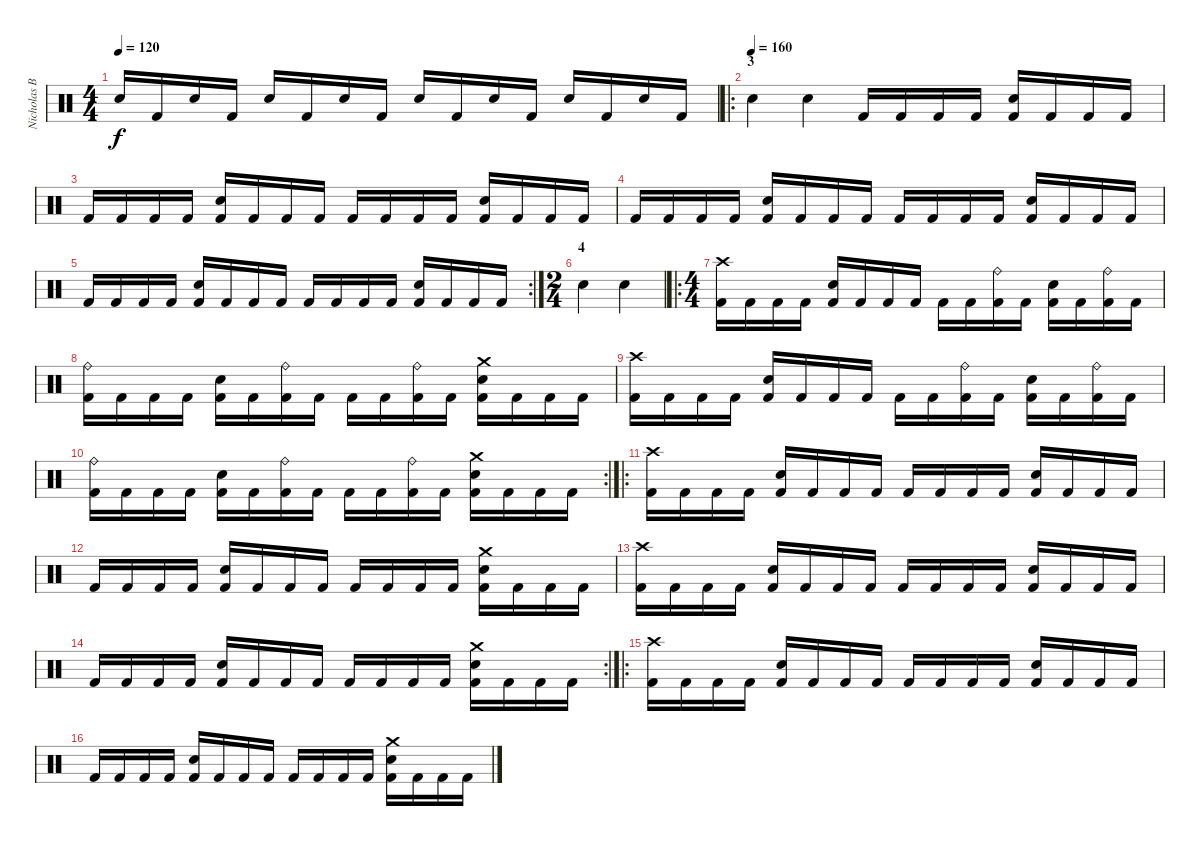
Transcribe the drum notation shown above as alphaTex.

\track ("Nicholas Barker" "Nicholas B") {instrument percussion}
\staff {score}
\articulation defaults
\ts (4 4)
\tempo 120
\clef neutral
\ks c "Snare (hit) 2".16{dy f} "Kick (hit) 2".16 "Snare (hit) 2".16 "Kick (hit) 2".16 "Snare (hit) 2".16 "Kick (hit) 2".16 "Snare (hit) 2".16 "Kick (hit) 2".16 "Snare (hit) 2".16 "Kick (hit) 2".16 "Snare (hit) 2".16 "Kick (hit) 2".16 "Snare (hit) 2".16 "Kick (hit) 2".16 "Snare (hit) 2".16 "Kick (hit) 2".16
|
\ro
\section ("" "3")
\tempo (160)
"Snare (hit) 2".4 "Snare (hit) 2".4 "Kick (hit) 2".16 "Kick (hit) 2".16 "Kick (hit) 2".16 "Kick (hit) 2".16 ("Kick (hit) 2" "Snare (hit) 2").16 "Kick (hit) 2".16 "Kick (hit) 2".16 "Kick (hit) 2".16 |
"Kick (hit) 2".16 "Kick (hit) 2".16 "Kick (hit) 2".16 "Kick (hit) 2".16 ("Kick (hit) 2" "Snare (hit) 2").16 "Kick (hit) 2".16 "Kick (hit) 2".16 "Kick (hit) 2".16 "Kick (hit) 2".16 "Kick (hit) 2".16 "Kick (hit) 2".16 "Kick (hit) 2".16 ("Kick (hit) 2" "Snare (hit) 2").16 "Kick (hit) 2".16 "Kick (hit) 2".16 "Kick (hit) 2".16 |
"Kick (hit) 2".16 "Kick (hit) 2".16 "Kick (hit) 2".16 "Kick (hit) 2".16 ("Kick (hit) 2" "Snare (hit) 2").16 "Kick (hit) 2".16 "Kick (hit) 2".16 "Kick (hit) 2".16 "Kick (hit) 2".16 "Kick (hit) 2".16 "Kick (hit) 2".16 "Kick (hit) 2".16 ("Kick (hit) 2" "Snare (hit) 2").16 "Kick (hit) 2".16 "Kick (hit) 2".16 "Kick (hit) 2".16 |
\rc 2 "Kick (hit) 2".16 "Kick (hit) 2".16 "Kick (hit) 2".16 "Kick (hit) 2".16
("Kick (hit) 2" "Snare (hit) 2").16 "Kick (hit) 2".16 "Kick (hit) 2".16 "Kick (hit) 2".16 "Kick (hit) 2".16 "Kick (hit) 2".16 "Kick (hit) 2".16 "Kick (hit) 2".16 ("Kick (hit) 2" "Snare (hit) 2").16 "Kick (hit) 2".16 "Kick (hit) 2".16 "Kick (hit) 2".16 |
\ts (2 4)
\section ("" "4")
"Snare (hit) 2".4 "Snare (hit) 2".4 |
\ro
\ts (4 4)
("Kick (hit) 2" "Crash high (hit)").16 "Kick (hit) 2".16 "Kick (hit) 2".16 "Kick (hit) 2".16 ("Kick (hit) 2" "Snare (hit) 2").16 "Kick (hit) 2".16 "Kick (hit) 2".16 "Kick (hit) 2".16 "Kick (hit) 2".16 "Kick (hit) 2".16 ("Kick (hit) 2" "Ride (bell)").16 "Kick (hit) 2".16 ("Kick (hit) 2" "Snare (hit) 2").16 "Kick (hit) 2".16 ("Kick (hit) 2" "Ride (bell)").16 "Kick (hit) 2".16 |
("Kick (hit) 2" "Ride (bell)").16 "Kick (hit) 2".16 "Kick (hit) 2".16 "Kick (hit) 2".16 ("Kick (hit) 2" "Snare (hit) 2").16 "Kick (hit) 2".16 ("Kick (hit) 2" "Ride (bell)").16 "Kick (hit) 2".16 "Kick (hit) 2".16 "Kick (hit) 2".16 ("Kick (hit) 2" "Ride (bell)").16 "Kick (hit) 2".16 ("Kick (hit) 2" "Crash medium (hit)" "Snare (hit) 2").16 "Kick (hit) 2".16 "Kick (hit) 2".16 "Kick (hit) 2".16 |
("Kick (hit) 2" "Crash high (hit)").16 "Kick (hit) 2".16 "Kick (hit) 2".16 "Kick (hit) 2".16 ("Kick (hit) 2" "Snare (hit) 2").16 "Kick (hit) 2".16 "Kick (hit) 2".16 "Kick (hit) 2".16 "Kick (hit) 2".16 "Kick (hit) 2".16 ("Kick (hit) 2" "Ride (bell)").16 "Kick (hit) 2".16 ("Kick (hit) 2" "Snare (hit) 2").16 "Kick (hit) 2".16 ("Kick (hit) 2" "Ride (bell)").16 "Kick (hit) 2".16 |
\rc 2
("Kick (hit) 2" "Ride (bell)").16 "Kick (hit) 2".16 "Kick (hit) 2".16 "Kick (hit) 2".16 ("Kick (hit) 2" "Snare (hit) 2").16 "Kick (hit) 2".16 ("Kick (hit) 2" "Ride (bell)").16 "Kick (hit) 2".16 "Kick (hit) 2".16 "Kick (hit) 2".16 ("Kick (hit) 2" "Ride (bell)").16 "Kick (hit) 2".16 ("Kick (hit) 2" "Crash medium (hit)" "Snare (hit) 2").16 "Kick (hit) 2".16 "Kick (hit) 2".16 "Kick (hit) 2".16 |
\ro
("Kick (hit) 2" "Crash high (hit)").16 "Kick (hit) 2".16 "Kick (hit) 2".16 "Kick (hit) 2".16 ("Kick (hit) 2" "Snare (hit) 2").16 "Kick (hit) 2".16 "Kick (hit) 2".16 "Kick (hit) 2".16 "Kick (hit) 2".16 "Kick (hit) 2".16 "Kick (hit) 2".16 "Kick (hit) 2".16 ("Kick (hit) 2" "Snare (hit) 2").16 "Kick (hit) 2".16 "Kick (hit) 2".16 "Kick (hit) 2".16 |
"Kick (hit) 2".16 "Kick (hit) 2".16 "Kick (hit) 2".16 "Kick (hit) 2".16 ("Kick (hit) 2" "Snare (hit) 2").16 "Kick (hit) 2".16 "Kick (hit) 2".16 "Kick (hit) 2".16 "Kick (hit) 2".16 "Kick (hit) 2".16 "Kick (hit) 2".16 "Kick (hit) 2".16 ("Kick (hit) 2" "Crash medium (hit)" "Snare (hit) 2").16 "Kick (hit) 2".16 "Kick (hit) 2".16 "Kick (hit) 2".16 |
("Kick (hit) 2" "Crash high (hit)").16 "Kick (hit) 2".16 "Kick (hit) 2".16 "Kick (hit) 2".16 ("Kick (hit) 2" "Snare (hit) 2").16 "Kick (hit) 2".16 "Kick (hit) 2".16 "Kick (hit) 2".16 "Kick (hit) 2".16 "Kick (hit) 2".16 "Kick (hit) 2".16 "Kick (hit) 2".16 ("Kick (hit) 2" "Snare (hit) 2").16 "Kick (hit) 2".16 "Kick (hit) 2".16 "Kick (hit) 2".16 |
\rc 2 "Kick (hit) 2".16 "Kick (hit) 2".16 "Kick (hit) 2".16 "Kick (hit) 2".16
("Kick (hit) 2" "Snare (hit) 2").16 "Kick (hit) 2".16 "Kick (hit) 2".16 "Kick (hit) 2".16 "Kick (hit) 2".16 "Kick (hit) 2".16 "Kick (hit) 2".16 "Kick (hit) 2".16 ("Kick (hit) 2" "Crash medium (hit)" "Snare (hit) 2").16 "Kick (hit) 2".16 "Kick (hit) 2".16 "Kick (hit) 2".16 |
\ro
("Kick (hit) 2" "Crash high (hit)").16 "Kick (hit) 2".16 "Kick (hit) 2".16 "Kick (hit) 2".16 ("Kick (hit) 2" "Snare (hit) 2").16 "Kick (hit) 2".16 "Kick (hit) 2".16 "Kick (hit) 2".16 "Kick (hit) 2".16 "Kick (hit) 2".16 "Kick (hit) 2".16 "Kick (hit) 2".16 ("Kick (hit) 2" "Snare (hit) 2").16 "Kick (hit) 2".16 "Kick (hit) 2".16 "Kick (hit) 2".16 |
"Kick (hit) 2".16 "Kick (hit) 2".16 "Kick (hit) 2".16 "Kick (hit) 2".16 ("Kick (hit) 2" "Snare (hit) 2").16 "Kick (hit) 2".16 "Kick (hit) 2".16 "Kick (hit) 2".16 "Kick (hit) 2".16 "Kick (hit) 2".16 "Kick (hit) 2".16 "Kick (hit) 2".16 ("Kick (hit) 2" "Crash medium (hit)" "Snare (hit) 2").16 "Kick (hit) 2".16 "Kick (hit) 2".16 "Kick (hit) 2".16
